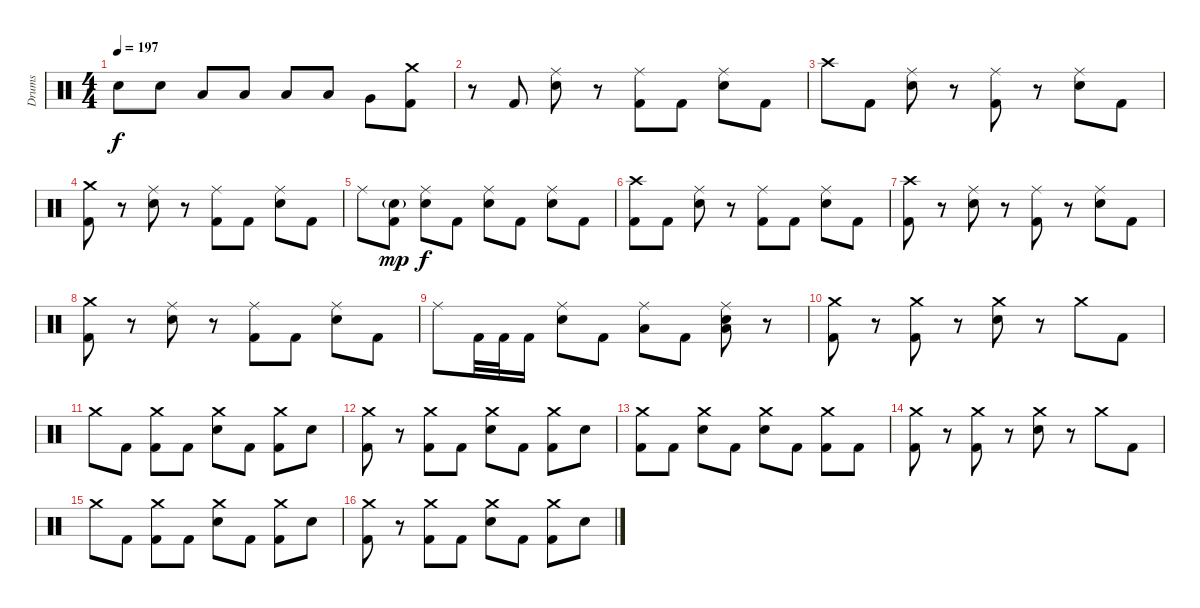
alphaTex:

\track ("Drums" "Drums") {instrument percussion}
\staff {score}
\articulation defaults
\ts (4 4)
\tempo 197
\clef neutral
\ks c "Electric Snare (hit)".8{dy f} "Electric Snare (hit)".8 "Low Tom (hit)".8 "Low Tom (hit)".8 "Low Tom (hit)".8 "Low Tom (hit)".8 "Very Low Tom (hit)".8
("Crash medium (hit)" "Kick (hit) 2").8 |
r.8 "Kick (hit) 2".8 ("Ride (middle)" "Electric Snare (hit)").8 r.8 ("Ride (middle)" "Kick (hit) 2").8 "Kick (hit) 2".8 ("Ride (middle)" "Electric Snare (hit)").8 "Kick (hit) 2".8 |
"Crash high (hit)".8 "Kick (hit) 2".8 ("Ride (middle)" "Electric Snare (hit)").8 r.8 ("Ride (middle)" "Kick (hit) 2").8 r.8 ("Ride (middle)" "Electric Snare (hit)").8 "Kick (hit) 2".8 |
("Crash medium (hit)" "Kick (hit) 2").8 r.8 ("Ride (middle)" "Electric Snare (hit)").8 r.8 ("Ride (middle)" "Kick (hit) 2").8 "Kick (hit) 2".8 ("Ride (middle)" "Electric Snare (hit)").8 "Kick (hit) 2".8 |
"Ride (middle)".8 ("Electric Snare (hit)"{g} "Kick (hit) 2").8{dy mp} ("Ride (middle)" "Electric Snare (hit)").8{dy f} "Kick (hit) 2".8 ("Ride (middle)" "Electric Snare (hit)").8 "Kick (hit) 2".8 ("Ride (middle)" "Electric Snare (hit)").8 "Kick (hit) 2".8 |
("Crash high (hit)" "Kick (hit) 2").8 "Kick (hit) 2".8 ("Ride (middle)" "Electric Snare (hit)").8 r.8 ("Ride (middle)" "Kick (hit) 2").8 "Kick (hit) 2".8 ("Ride (middle)" "Electric Snare (hit)").8 "Kick (hit) 2".8 |
("Crash high (hit)" "Kick (hit) 2").8 r.8 ("Ride (middle)" "Electric Snare (hit)").8 r.8 ("Ride (middle)" "Kick (hit) 2").8 r.8 ("Ride (middle)" "Electric Snare (hit)").8 "Kick (hit) 2".8 |
("Crash medium (hit)" "Kick (hit) 2").8 r.8 ("Ride (middle)" "Electric Snare (hit)").8 r.8 ("Ride (middle)" "Kick (hit) 2").8 "Kick (hit) 2".8 ("Ride (middle)" "Electric Snare (hit)").8 "Kick (hit) 2".8 |
"Ride (middle)".8 "Kick (hit) 2".32 "Kick (hit) 2".32 "Kick (hit) 2".16 ("Ride (middle)" "Electric Snare (hit)").8 "Kick (hit) 2".8 ("Ride (middle)" "Low Tom (hit)").8 "Kick (hit) 2".8 ("Ride (middle)" "Electric Snare (hit)" "Low Floor Tom (hit)").8 r.8 |
("Crash medium (hit)" "Kick (hit) 2").8 r.8 ("Crash medium (hit)" "Kick (hit) 2").8 r.8 ("Crash medium (hit)" "Electric Snare (hit)").8 r.8 "Crash medium (hit)".8 "Kick (hit) 2".8 |
"Crash medium (hit)".8 "Kick (hit) 2".8 ("Crash medium (hit)" "Kick (hit) 2").8 "Kick (hit) 2".8 ("Crash medium (hit)" "Electric Snare (hit)").8 "Kick (hit) 2".8 ("Crash medium (hit)" "Kick (hit) 2").8 "Electric Snare (hit)".8 |
("Crash medium (hit)" "Kick (hit) 2").8 r.8 ("Crash medium (hit)" "Kick (hit) 2").8 "Kick (hit) 2".8 ("Crash medium (hit)" "Electric Snare (hit)").8 "Kick (hit) 2".8 ("Crash medium (hit)" "Kick (hit) 2").8 "Electric Snare (hit)".8 |
("Crash medium (hit)" "Kick (hit) 2").8 "Kick (hit) 2".8 ("Crash medium (hit)" "Electric Snare (hit)").8 "Kick (hit) 2".8 ("Crash medium (hit)" "Electric Snare (hit)").8 "Kick (hit) 2".8 ("Crash medium (hit)" "Kick (hit) 2").8 "Kick (hit) 2".8 |
("Crash medium (hit)" "Kick (hit) 2").8 r.8 ("Crash medium (hit)" "Kick (hit) 2").8 r.8 ("Crash medium (hit)" "Electric Snare (hit)").8 r.8 "Crash medium (hit)".8 "Kick (hit) 2".8 |
"Crash medium (hit)".8 "Kick (hit) 2".8 ("Crash medium (hit)" "Kick (hit) 2").8 "Kick (hit) 2".8 ("Crash medium (hit)" "Electric Snare (hit)").8 "Kick (hit) 2".8 ("Crash medium (hit)" "Kick (hit) 2").8 "Electric Snare (hit)".8 |
("Crash medium (hit)" "Kick (hit) 2").8 r.8 ("Crash medium (hit)" "Kick (hit) 2").8 "Kick (hit) 2".8 ("Crash medium (hit)" "Electric Snare (hit)").8 "Kick (hit) 2".8 ("Crash medium (hit)" "Kick (hit) 2").8 "Electric Snare (hit)".8
